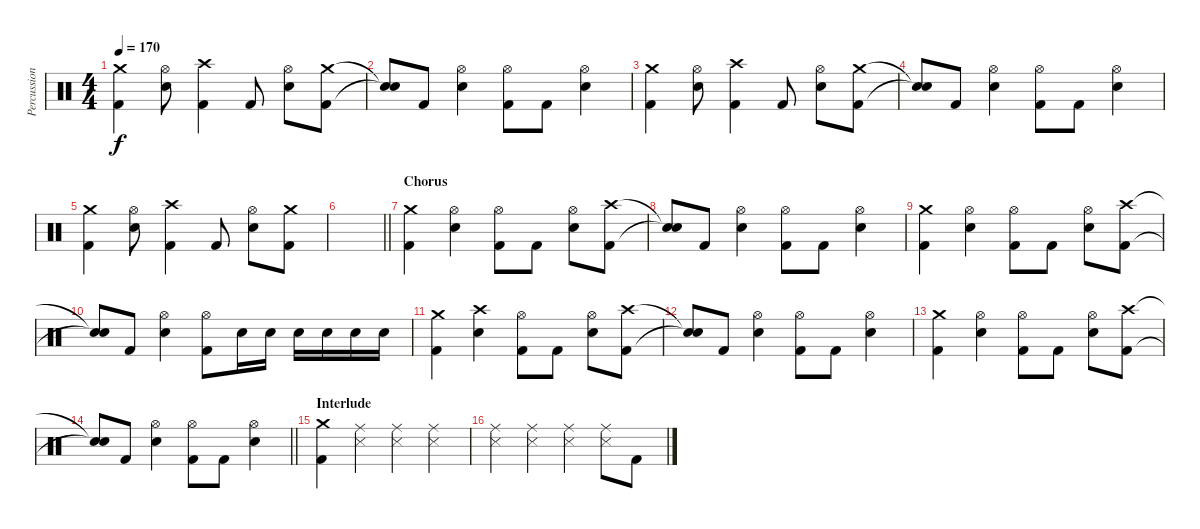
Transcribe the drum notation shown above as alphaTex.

\track ("Percussions" "Percussion") {instrument percussion}
\staff {score}
\articulation defaults
\ts (4 4)
\tempo 170
\clef neutral
\ks c
("Crash medium (hit)" "Kick (hit) 2").4{dy f} ("Hi-Hat (open)" "Electric Snare (hit)").8 ("Crash high (hit)" "Kick (hit) 2").4 "Kick (hit) 2".8 ("Hi-Hat (open)" "Electric Snare (hit)").8 ("Crash medium (hit)" "Kick (hit) 2").8 |
("Snare (hit)"{t} "Snare (hit)"{t}).8 "Kick (hit) 2".8 ("Hi-Hat (open)" "Electric Snare (hit)").4 ("Hi-Hat (open)" "Kick (hit) 2").8 "Kick (hit) 2".8 ("Hi-Hat (open)" "Electric Snare (hit)").4 |
("Crash medium (hit)" "Kick (hit) 2").4 ("Hi-Hat (open)" "Electric Snare (hit)").8 ("Crash high (hit)" "Kick (hit) 2").4 "Kick (hit) 2".8 ("Hi-Hat (open)" "Electric Snare (hit)").8 ("Crash medium (hit)" "Kick (hit) 2").8 |
("Snare (hit)"{t} "Snare (hit)"{t}).8 "Kick (hit) 2".8 ("Hi-Hat (open)" "Electric Snare (hit)").4 ("Hi-Hat (open)" "Kick (hit) 2").8 "Kick (hit) 2".8 ("Hi-Hat (open)" "Electric Snare (hit)").4 |
("Crash medium (hit)" "Kick (hit) 2").4 ("Hi-Hat (open)" "Electric Snare (hit)").8 ("Crash high (hit)" "Kick (hit) 2").4 "Kick (hit) 2".8 ("Hi-Hat (open)" "Electric Snare (hit)").8 ("Crash medium (hit)" "Kick (hit) 2").8 |
\barLineRight lightlight
|
\section ("" "Chorus")
("Crash medium (hit)" "Kick (hit) 2").4 ("Hi-Hat (open)" "Electric Snare (hit)").4 ("Hi-Hat (open)" "Kick (hit) 2").8 "Kick (hit) 2".8 ("Hi-Hat (open)" "Electric Snare (hit)").8 ("Crash high (hit)" "Kick (hit) 2").8 |
("Snare (hit)"{t} "Snare (hit)"{t}).8 "Kick (hit) 2".8 ("Hi-Hat (open)" "Electric Snare (hit)").4 ("Hi-Hat (open)" "Kick (hit) 2").8 "Kick (hit) 2".8 ("Hi-Hat (open)" "Electric Snare (hit)").4 |
("Crash medium (hit)" "Kick (hit) 2").4 ("Hi-Hat (open)" "Electric Snare (hit)").4 ("Hi-Hat (open)" "Kick (hit) 2").8 "Kick (hit) 2".8 ("Hi-Hat (open)" "Electric Snare (hit)").8 ("Crash high (hit)" "Kick (hit) 2").8 |
("Snare (hit)"{t} "Snare (hit)"{t}).8 "Kick (hit) 2".8 ("Hi-Hat (open)" "Electric Snare (hit)").4 ("Hi-Hat (open)" "Kick (hit) 2").8 "Electric Snare (hit)".16 "Electric Snare (hit)".16 "Electric Snare (hit)".16 "Electric Snare (hit)".16 "Electric Snare (hit)".16 "Electric Snare (hit)".16 |
("Crash medium (hit)" "Kick (hit) 2").4 ("Crash high (hit)" "Electric Snare (hit)").4 ("Hi-Hat (open)" "Kick (hit) 2").8 "Kick (hit) 2".8 ("Hi-Hat (open)" "Electric Snare (hit)").8 ("Crash high (hit)" "Kick (hit) 2").8 |
("Snare (hit)"{t} "Snare (hit)"{t}).8 "Kick (hit) 2".8 ("Hi-Hat (open)" "Electric Snare (hit)").4 ("Hi-Hat (open)" "Kick (hit) 2").8 "Kick (hit) 2".8 ("Hi-Hat (open)" "Electric Snare (hit)").4 |
("Crash medium (hit)" "Kick (hit) 2").4 ("Hi-Hat (open)" "Electric Snare (hit)").4 ("Hi-Hat (open)" "Kick (hit) 2").8 "Kick (hit) 2".8 ("Hi-Hat (open)" "Electric Snare (hit)").8 ("Crash high (hit)" "Kick (hit) 2").8 |
\barLineRight lightlight
("Snare (hit)"{t} "Snare (hit)"{t}).8 "Kick (hit) 2".8 ("Hi-Hat (open)" "Electric Snare (hit)").4 ("Hi-Hat (open)" "Kick (hit) 2").8 "Kick (hit) 2".8 ("Hi-Hat (open)" "Electric Snare (hit)").4 |
\section ("" "Interlude")
("Crash medium (hit)" "Kick (hit) 2").4 ("Ride (middle)" "Snare (side stick) 3").4 ("Ride (middle)" "Snare (side stick) 3").4 ("Ride (middle)" "Snare (side stick) 3").4 |
("Ride (middle)" "Snare (side stick) 3").4 ("Ride (middle)" "Snare (side stick) 3").4 ("Ride (middle)" "Snare (side stick) 3").4 ("Ride (middle)" "Snare (side stick) 3").8 "Kick (hit) 2".8
